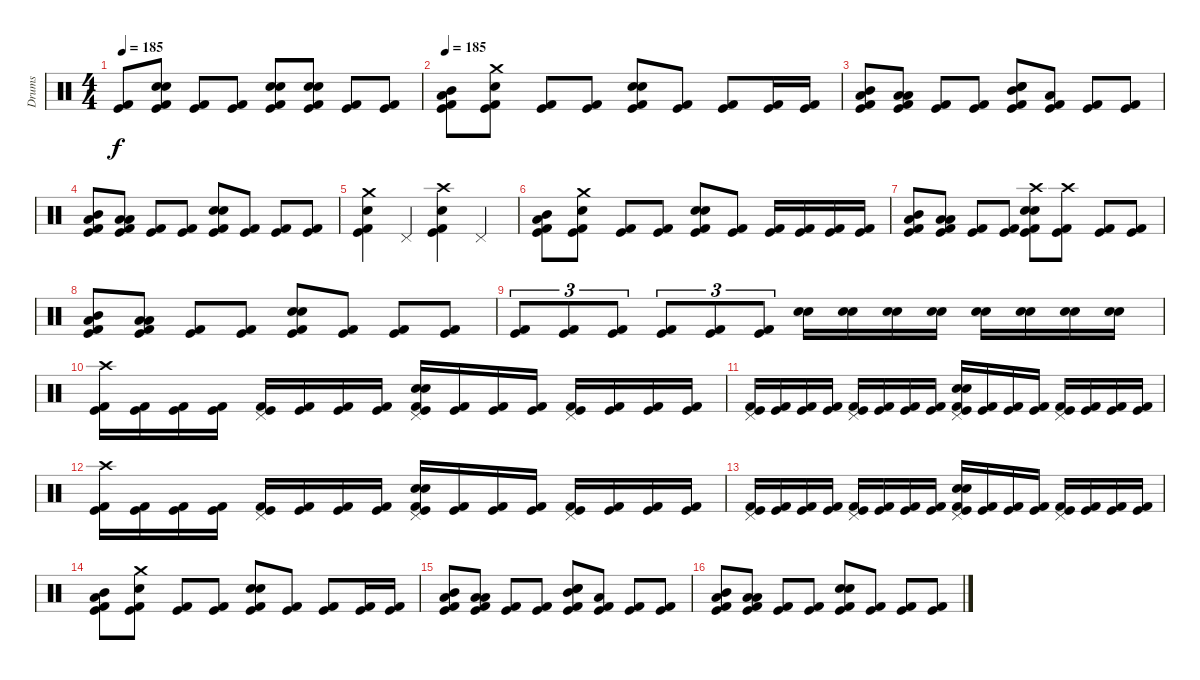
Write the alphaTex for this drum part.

\track ("Drums" "Drums") {instrument percussion}
\staff {score}
\articulation defaults
\ts (4 4)
\tempo 185
\clef neutral
\ks c
("Kick (hit) 2" "Kick (hit)").8{dy f} ("Electric Snare (hit)" "Snare (hit) 2" "Kick (hit) 2" "Kick (hit)").8 ("Kick (hit) 2" "Kick (hit)").8 ("Kick (hit) 2" "Kick (hit)").8 ("Electric Snare (hit)" "Snare (hit) 2" "Kick (hit) 2" "Kick (hit)").8 ("Electric Snare (hit)" "Snare (hit) 2" "Kick (hit) 2" "Kick (hit)").8 ("Kick (hit) 2" "Kick (hit)").8 ("Kick (hit) 2" "Kick (hit)").8 |
\tempo 185
("Mid Tom (hit)" "Low Tom (hit)" "Kick (hit) 2" "Kick (hit)").8 ("Crash medium (hit)" "Snare (hit) 2" "Kick (hit) 2" "Kick (hit)").8 ("Kick (hit) 2" "Kick (hit)").8 ("Kick (hit) 2" "Kick (hit)").8 ("Electric Snare (hit)" "Snare (hit) 2" "Kick (hit) 2" "Kick (hit)").8 ("Kick (hit) 2" "Kick (hit)").8 ("Kick (hit) 2" "Kick (hit)").8 ("Kick (hit) 2" "Kick (hit)").16 ("Kick (hit) 2" "Kick (hit)").16 |
("Mid Tom (hit)" "Low Tom (hit)" "Kick (hit) 2" "Kick (hit)").8 ("Low Tom (hit)" "Low Tom (hit)" "Kick (hit) 2" "Kick (hit)").8 ("Kick (hit) 2" "Kick (hit)").8 ("Kick (hit) 2" "Kick (hit)").8 ("Mid Tom (hit)" "Electric Snare (hit)" "Snare (hit) 2" "Kick (hit) 2" "Kick (hit)").8 ("Low Tom (hit)" "Kick (hit) 2" "Kick (hit)").8 ("Kick (hit) 2" "Kick (hit)").8 ("Kick (hit) 2" "Kick (hit)").8 |
("Mid Tom (hit)" "Low Tom (hit)" "Kick (hit) 2" "Kick (hit)").8 ("Low Tom (hit)" "Low Tom (hit)" "Kick (hit) 2" "Kick (hit)").8 ("Kick (hit) 2" "Kick (hit)").8 ("Kick (hit) 2" "Kick (hit)").8 ("Electric Snare (hit)" "Snare (hit) 2" "Kick (hit) 2" "Kick (hit)").8 ("Kick (hit) 2" "Kick (hit)").8 ("Kick (hit) 2" "Kick (hit)").8 ("Kick (hit) 2" "Kick (hit)").8 |
("Crash medium (hit)" "Snare (hit) 2" "Kick (hit) 2" "Kick (hit)").4 "Pedal Hi-Hat (hit)".4 ("Crash high (hit)" "Electric Snare (hit)" "Kick (hit) 2" "Kick (hit)").4 "Pedal Hi-Hat (hit)".4 |
("Mid Tom (hit)" "Low Tom (hit)" "Kick (hit) 2" "Kick (hit)").8 ("Crash medium (hit)" "Snare (hit) 2" "Kick (hit) 2" "Kick (hit)").8 ("Kick (hit) 2" "Kick (hit)").8 ("Kick (hit) 2" "Kick (hit)").8 ("Electric Snare (hit)" "Snare (hit) 2" "Kick (hit) 2" "Kick (hit)").8 ("Kick (hit) 2" "Kick (hit)").8 ("Kick (hit) 2" "Kick (hit)").16 ("Kick (hit) 2" "Kick (hit)").16 ("Kick (hit) 2" "Kick (hit)").16 ("Kick (hit) 2" "Kick (hit)").16 |
("Mid Tom (hit)" "Low Tom (hit)" "Kick (hit) 2" "Kick (hit)").8 ("Low Tom (hit)" "Low Tom (hit)" "Kick (hit) 2" "Kick (hit)").8 ("Kick (hit) 2" "Kick (hit)").8 ("Kick (hit) 2" "Kick (hit)").8 ("Crash high (hit)" "Electric Snare (hit)" "Snare (hit) 2" "Kick (hit) 2" "Kick (hit)").8 ("Crash high (hit)" "Kick (hit) 2" "Kick (hit)").8 ("Kick (hit) 2" "Kick (hit)").8 ("Kick (hit) 2" "Kick (hit)").8 |
("Mid Tom (hit)" "Low Tom (hit)" "Kick (hit) 2" "Kick (hit)").8 ("Low Tom (hit)" "Low Tom (hit)" "Kick (hit) 2" "Kick (hit)").8 ("Kick (hit) 2" "Kick (hit)").8 ("Kick (hit) 2" "Kick (hit)").8 ("Electric Snare (hit)" "Snare (hit) 2" "Kick (hit) 2" "Kick (hit)").8 ("Kick (hit) 2" "Kick (hit)").8 ("Kick (hit) 2" "Kick (hit)").8 ("Kick (hit) 2" "Kick (hit)").8 |
("Kick (hit) 2" "Kick (hit)").8{tu (3 2)} ("Kick (hit) 2" "Kick (hit)").8{tu (3 2)} ("Kick (hit) 2" "Kick (hit)").8{tu (3 2)} ("Kick (hit) 2" "Kick (hit)").8{tu (3 2)} ("Kick (hit) 2" "Kick (hit)").8{tu (3 2)} ("Kick (hit) 2" "Kick (hit)").8{tu (3 2)} ("Electric Snare (hit)" "Snare (hit) 2").16 ("Electric Snare (hit)" "Snare (hit) 2").16 ("Electric Snare (hit)" "Snare (hit) 2").16 ("Electric Snare (hit)" "Snare (hit) 2").16 ("Electric Snare (hit)" "Snare (hit) 2").16 ("Electric Snare (hit)" "Snare (hit) 2").16 ("Electric Snare (hit)" "Snare (hit) 2").16 ("Electric Snare (hit)" "Snare (hit) 2").16 |
("Crash high (hit)" "Kick (hit) 2" "Kick (hit)").16 ("Kick (hit) 2" "Kick (hit)").16 ("Kick (hit) 2" "Kick (hit)").16 ("Kick (hit) 2" "Kick (hit)").16 ("Pedal Hi-Hat (hit)" "Kick (hit) 2" "Kick (hit)").16 ("Kick (hit) 2" "Kick (hit)").16 ("Kick (hit) 2" "Kick (hit)").16 ("Kick (hit) 2" "Kick (hit)").16 ("Pedal Hi-Hat (hit)" "Electric Snare (hit)" "Snare (hit) 2" "Kick (hit) 2" "Kick (hit)").16 ("Kick (hit) 2" "Kick (hit)").16 ("Kick (hit) 2" "Kick (hit)").16 ("Kick (hit) 2" "Kick (hit)").16 ("Pedal Hi-Hat (hit)" "Kick (hit) 2" "Kick (hit)").16 ("Kick (hit) 2" "Kick (hit)").16 ("Kick (hit) 2" "Kick (hit)").16 ("Kick (hit) 2" "Kick (hit)").16 |
("Pedal Hi-Hat (hit)" "Kick (hit) 2" "Kick (hit)").16 ("Kick (hit) 2" "Kick (hit)").16 ("Kick (hit) 2" "Kick (hit)").16 ("Kick (hit) 2" "Kick (hit)").16 ("Pedal Hi-Hat (hit)" "Kick (hit) 2" "Kick (hit)").16 ("Kick (hit) 2" "Kick (hit)").16 ("Kick (hit) 2" "Kick (hit)").16 ("Kick (hit) 2" "Kick (hit)").16 ("Pedal Hi-Hat (hit)" "Electric Snare (hit)" "Snare (hit) 2" "Kick (hit) 2" "Kick (hit)").16 ("Kick (hit) 2" "Kick (hit)").16 ("Kick (hit) 2" "Kick (hit)").16 ("Kick (hit) 2" "Kick (hit)").16 ("Pedal Hi-Hat (hit)" "Kick (hit) 2" "Kick (hit)").16 ("Kick (hit) 2" "Kick (hit)").16 ("Kick (hit) 2" "Kick (hit)").16 ("Kick (hit) 2" "Kick (hit)").16 |
("Crash high (hit)" "Kick (hit) 2" "Kick (hit)").16 ("Kick (hit) 2" "Kick (hit)").16 ("Kick (hit) 2" "Kick (hit)").16 ("Kick (hit) 2" "Kick (hit)").16 ("Pedal Hi-Hat (hit)" "Kick (hit) 2" "Kick (hit)").16 ("Kick (hit) 2" "Kick (hit)").16 ("Kick (hit) 2" "Kick (hit)").16 ("Kick (hit) 2" "Kick (hit)").16 ("Pedal Hi-Hat (hit)" "Electric Snare (hit)" "Snare (hit) 2" "Kick (hit) 2" "Kick (hit)").16 ("Kick (hit) 2" "Kick (hit)").16 ("Kick (hit) 2" "Kick (hit)").16 ("Kick (hit) 2" "Kick (hit)").16 ("Pedal Hi-Hat (hit)" "Kick (hit) 2" "Kick (hit)").16 ("Kick (hit) 2" "Kick (hit)").16 ("Kick (hit) 2" "Kick (hit)").16 ("Kick (hit) 2" "Kick (hit)").16 |
("Pedal Hi-Hat (hit)" "Kick (hit) 2" "Kick (hit)").16 ("Kick (hit) 2" "Kick (hit)").16 ("Kick (hit) 2" "Kick (hit)").16 ("Kick (hit) 2" "Kick (hit)").16 ("Pedal Hi-Hat (hit)" "Kick (hit) 2" "Kick (hit)").16 ("Kick (hit) 2" "Kick (hit)").16 ("Kick (hit) 2" "Kick (hit)").16 ("Kick (hit) 2" "Kick (hit)").16 ("Pedal Hi-Hat (hit)" "Electric Snare (hit)" "Snare (hit) 2" "Kick (hit) 2" "Kick (hit)").16 ("Kick (hit) 2" "Kick (hit)").16 ("Kick (hit) 2" "Kick (hit)").16 ("Kick (hit) 2" "Kick (hit)").16 ("Pedal Hi-Hat (hit)" "Kick (hit) 2" "Kick (hit)").16 ("Kick (hit) 2" "Kick (hit)").16 ("Kick (hit) 2" "Kick (hit)").16 ("Kick (hit) 2" "Kick (hit)").16 |
("Mid Tom (hit)" "Low Tom (hit)" "Kick (hit) 2" "Kick (hit)").8 ("Crash medium (hit)" "Snare (hit) 2" "Kick (hit) 2" "Kick (hit)").8 ("Kick (hit) 2" "Kick (hit)").8 ("Kick (hit) 2" "Kick (hit)").8 ("Electric Snare (hit)" "Snare (hit) 2" "Kick (hit) 2" "Kick (hit)").8 ("Kick (hit) 2" "Kick (hit)").8 ("Kick (hit) 2" "Kick (hit)").8 ("Kick (hit) 2" "Kick (hit)").16 ("Kick (hit) 2" "Kick (hit)").16 |
("Mid Tom (hit)" "Low Tom (hit)" "Kick (hit) 2" "Kick (hit)").8 ("Low Tom (hit)" "Low Tom (hit)" "Kick (hit) 2" "Kick (hit)").8 ("Kick (hit) 2" "Kick (hit)").8 ("Kick (hit) 2" "Kick (hit)").8 ("Mid Tom (hit)" "Electric Snare (hit)" "Snare (hit) 2" "Kick (hit) 2" "Kick (hit)").8 ("Low Tom (hit)" "Kick (hit) 2" "Kick (hit)").8 ("Kick (hit) 2" "Kick (hit)").8 ("Kick (hit) 2" "Kick (hit)").8 |
("Mid Tom (hit)" "Low Tom (hit)" "Kick (hit) 2" "Kick (hit)").8 ("Low Tom (hit)" "Low Tom (hit)" "Kick (hit) 2" "Kick (hit)").8 ("Kick (hit) 2" "Kick (hit)").8 ("Kick (hit) 2" "Kick (hit)").8 ("Electric Snare (hit)" "Snare (hit) 2" "Kick (hit) 2" "Kick (hit)").8 ("Kick (hit) 2" "Kick (hit)").8 ("Kick (hit) 2" "Kick (hit)").8 ("Kick (hit) 2" "Kick (hit)").8
